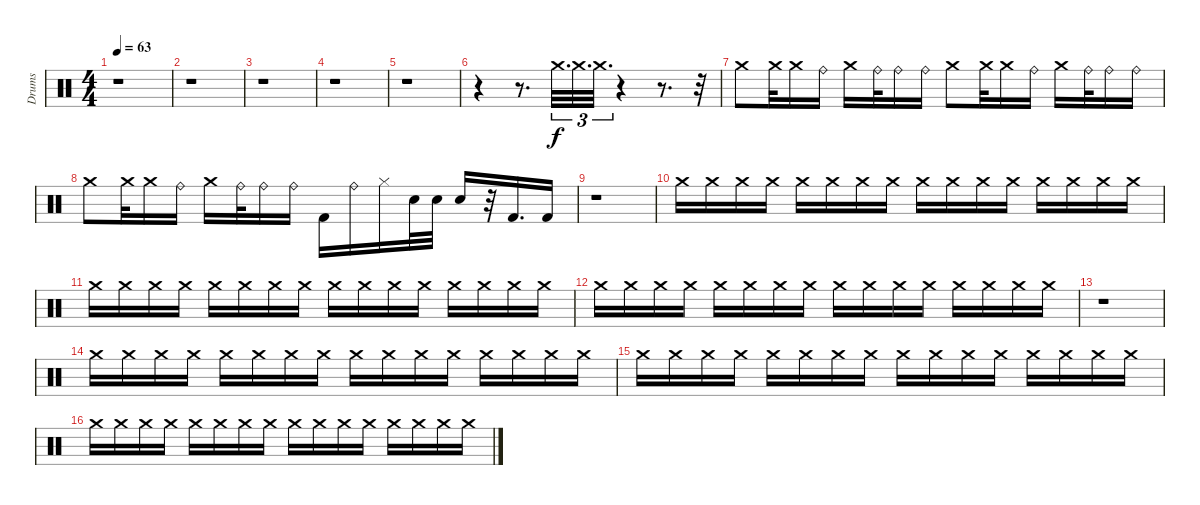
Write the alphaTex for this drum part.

\track ("Drums" "Drums") {instrument percussion}
\staff {score}
\articulation defaults
\ts (4 4)
\tempo 63
\clef neutral
\ks c
r.1{dy f} |
r.1 |
r.1 |
r.1 |
r.1 |
r.4 r.8{d} "Crash medium (hit)".32{d tu (3 2)} "Crash medium (hit)".32{d tu (3 2)} "Crash medium (hit)".32{d tu (3 2)} r.4 r.8{d} r.32 |
"Crash medium (hit)".8 "Crash medium (hit)".32 "Crash medium (hit)".16 "Ride (bell)".16 "Crash medium (hit)".16 "Ride (bell)".32 "Ride (bell)".16 "Ride (bell)".16 "Crash medium (hit)".8 "Crash medium (hit)".32 "Crash medium (hit)".16 "Ride (bell)".16 "Crash medium (hit)".16 "Ride (bell)".32 "Ride (bell)".16 "Ride (bell)".16 |
"Crash medium (hit)".8 "Crash medium (hit)".32 "Crash medium (hit)".16 "Ride (bell)".16 "Crash medium (hit)".16 "Ride (bell)".32 "Ride (bell)".16 "Ride (bell)".16 "Kick (hit) 2".16 "Ride (bell)".16 "Hi-Hat (closed)".16 "Electric Snare (hit)".32 "Electric Snare (hit)".32 "Snare (hit) 2".16 r.32 "Kick (hit) 2".16{d} "Kick (hit) 2".16 |
r.1 |
"Crash medium (hit)".16 "Crash medium (hit)".16 "Crash medium (hit)".16 "Crash medium (hit)".16 "Crash medium (hit)".16 "Crash medium (hit)".16 "Crash medium (hit)".16 "Crash medium (hit)".16 "Crash medium (hit)".16 "Crash medium (hit)".16 "Crash medium (hit)".16 "Crash medium (hit)".16 "Crash medium (hit)".16 "Crash medium (hit)".16 "Crash medium (hit)".16 "Crash medium (hit)".16 |
"Crash medium (hit)".16 "Crash medium (hit)".16 "Crash medium (hit)".16 "Crash medium (hit)".16 "Crash medium (hit)".16 "Crash medium (hit)".16 "Crash medium (hit)".16 "Crash medium (hit)".16 "Crash medium (hit)".16 "Crash medium (hit)".16 "Crash medium (hit)".16 "Crash medium (hit)".16 "Crash medium (hit)".16 "Crash medium (hit)".16 "Crash medium (hit)".16 "Crash medium (hit)".16 |
"Crash medium (hit)".16 "Crash medium (hit)".16 "Crash medium (hit)".16 "Crash medium (hit)".16 "Crash medium (hit)".16 "Crash medium (hit)".16 "Crash medium (hit)".16 "Crash medium (hit)".16 "Crash medium (hit)".16 "Crash medium (hit)".16 "Crash medium (hit)".16 "Crash medium (hit)".16 "Crash medium (hit)".16 "Crash medium (hit)".16 "Crash medium (hit)".16 "Crash medium (hit)".16 |
r.1 |
"Crash medium (hit)".16 "Crash medium (hit)".16 "Crash medium (hit)".16 "Crash medium (hit)".16 "Crash medium (hit)".16 "Crash medium (hit)".16 "Crash medium (hit)".16 "Crash medium (hit)".16 "Crash medium (hit)".16 "Crash medium (hit)".16 "Crash medium (hit)".16 "Crash medium (hit)".16 "Crash medium (hit)".16 "Crash medium (hit)".16 "Crash medium (hit)".16 "Crash medium (hit)".16 |
"Crash medium (hit)".16 "Crash medium (hit)".16 "Crash medium (hit)".16 "Crash medium (hit)".16 "Crash medium (hit)".16 "Crash medium (hit)".16 "Crash medium (hit)".16 "Crash medium (hit)".16 "Crash medium (hit)".16 "Crash medium (hit)".16 "Crash medium (hit)".16 "Crash medium (hit)".16 "Crash medium (hit)".16 "Crash medium (hit)".16 "Crash medium (hit)".16 "Crash medium (hit)".16 |
"Crash medium (hit)".16 "Crash medium (hit)".16 "Crash medium (hit)".16 "Crash medium (hit)".16 "Crash medium (hit)".16 "Crash medium (hit)".16 "Crash medium (hit)".16 "Crash medium (hit)".16 "Crash medium (hit)".16 "Crash medium (hit)".16 "Crash medium (hit)".16 "Crash medium (hit)".16 "Crash medium (hit)".16 "Crash medium (hit)".16 "Crash medium (hit)".16 "Crash medium (hit)".16
